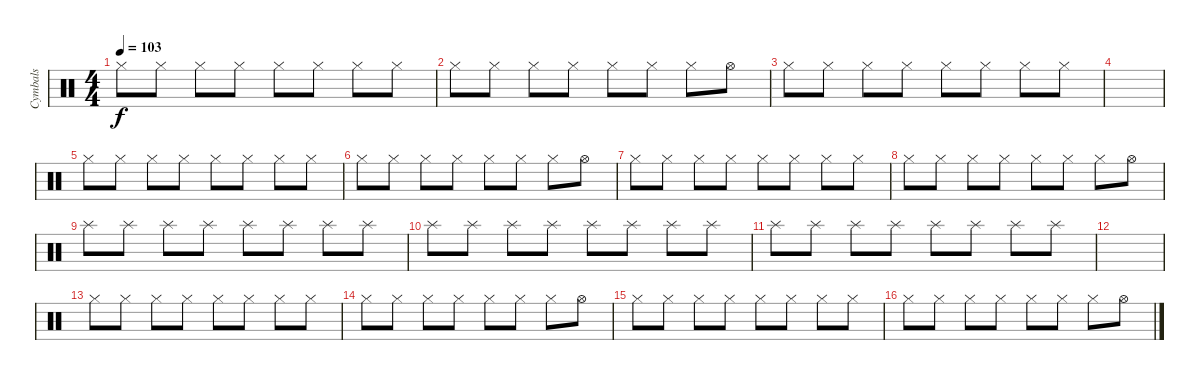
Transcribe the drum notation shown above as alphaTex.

\track ("Cymbals" "Cymbals") {instrument percussion}
\staff {score}
\articulation defaults
\ts (4 4)
\tempo 103
\clef neutral
\ks c "Hi-Hat (closed)".8{dy f} "Hi-Hat (closed)".8 "Hi-Hat (closed)".8 "Hi-Hat (closed)".8 "Hi-Hat (closed)".8 "Hi-Hat (closed)".8 "Hi-Hat (closed)".8 "Hi-Hat (closed)".8
|
"Hi-Hat (closed)".8 "Hi-Hat (closed)".8 "Hi-Hat (closed)".8 "Hi-Hat (closed)".8 "Hi-Hat (closed)".8 "Hi-Hat (closed)".8 "Hi-Hat (closed)".8 "Hi-Hat (open)".8 |
"Hi-Hat (closed)".8 "Hi-Hat (closed)".8 "Hi-Hat (closed)".8 "Hi-Hat (closed)".8 "Hi-Hat (closed)".8 "Hi-Hat (closed)".8 "Hi-Hat (closed)".8 "Hi-Hat (closed)".8 |
|
"Hi-Hat (closed)".8 "Hi-Hat (closed)".8 "Hi-Hat (closed)".8 "Hi-Hat (closed)".8 "Hi-Hat (closed)".8 "Hi-Hat (closed)".8 "Hi-Hat (closed)".8 "Hi-Hat (closed)".8 |
"Hi-Hat (closed)".8 "Hi-Hat (closed)".8 "Hi-Hat (closed)".8 "Hi-Hat (closed)".8 "Hi-Hat (closed)".8 "Hi-Hat (closed)".8 "Hi-Hat (closed)".8 "Hi-Hat (open)".8 |
"Hi-Hat (closed)".8 "Hi-Hat (closed)".8 "Hi-Hat (closed)".8 "Hi-Hat (closed)".8 "Hi-Hat (closed)".8 "Hi-Hat (closed)".8 "Hi-Hat (closed)".8 "Hi-Hat (closed)".8 |
"Hi-Hat (closed)".8 "Hi-Hat (closed)".8 "Hi-Hat (closed)".8 "Hi-Hat (closed)".8 "Hi-Hat (closed)".8 "Hi-Hat (closed)".8 "Hi-Hat (closed)".8 "Hi-Hat (open)".8 |
"Splash (hit)".8 "Splash (hit)".8 "Splash (hit)".8 "Splash (hit)".8 "Splash (hit)".8 "Splash (hit)".8 "Splash (hit)".8 "Splash (hit)".8 |
"Splash (hit)".8 "Splash (hit)".8 "Splash (hit)".8 "Splash (hit)".8 "Splash (hit)".8 "Splash (hit)".8 "Splash (hit)".8 "Splash (hit)".8 |
"Splash (hit)".8 "Splash (hit)".8 "Splash (hit)".8 "Splash (hit)".8 "Splash (hit)".8 "Splash (hit)".8 "Splash (hit)".8 "Splash (hit)".8 |
|
"Hi-Hat (closed)".8 "Hi-Hat (closed)".8 "Hi-Hat (closed)".8 "Hi-Hat (closed)".8 "Hi-Hat (closed)".8 "Hi-Hat (closed)".8 "Hi-Hat (closed)".8 "Hi-Hat (closed)".8 |
"Hi-Hat (closed)".8 "Hi-Hat (closed)".8 "Hi-Hat (closed)".8 "Hi-Hat (closed)".8 "Hi-Hat (closed)".8 "Hi-Hat (closed)".8 "Hi-Hat (closed)".8 "Hi-Hat (open)".8 |
"Hi-Hat (closed)".8 "Hi-Hat (closed)".8 "Hi-Hat (closed)".8 "Hi-Hat (closed)".8 "Hi-Hat (closed)".8 "Hi-Hat (closed)".8 "Hi-Hat (closed)".8 "Hi-Hat (closed)".8 |
"Hi-Hat (closed)".8 "Hi-Hat (closed)".8 "Hi-Hat (closed)".8 "Hi-Hat (closed)".8 "Hi-Hat (closed)".8 "Hi-Hat (closed)".8 "Hi-Hat (closed)".8 "Hi-Hat (open)".8
